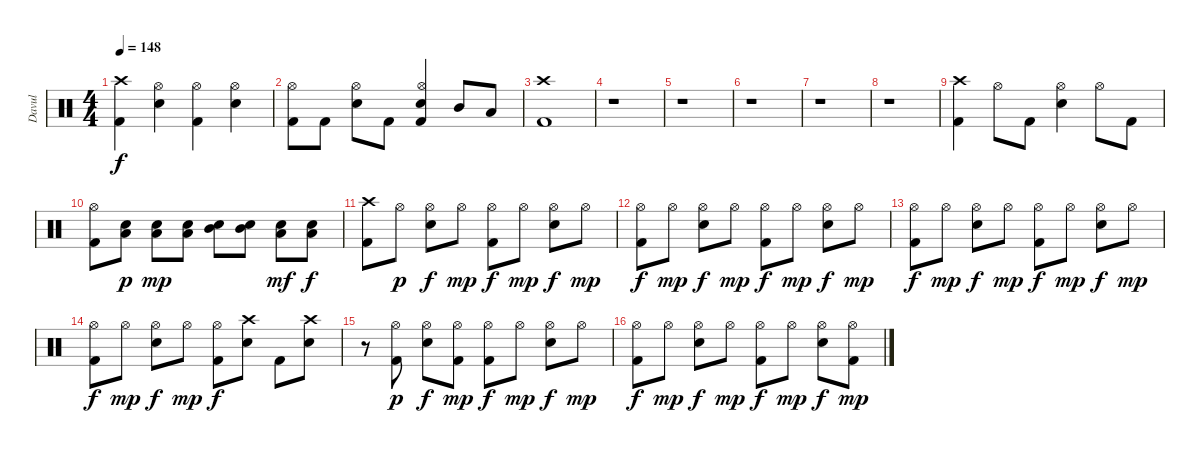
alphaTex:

\track ("Davul" "Davul") {instrument percussion}
\staff {score}
\articulation defaults
\ts (4 4)
\tempo 148
\clef neutral
\ks c
("Crash high (hit)" "Kick (hit) 2").4{dy f} ("Hi-Hat (open)" "Electric Snare (hit)").4 ("Hi-Hat (open)" "Kick (hit) 2").4 ("Hi-Hat (open)" "Electric Snare (hit)").4 |
("Hi-Hat (open)" "Kick (hit) 2").8 "Kick (hit) 2".8 ("Hi-Hat (open)" "Electric Snare (hit)").8 "Kick (hit) 2".8 ("Hi-Hat (open)" "Kick (hit) 2" "Electric Snare (hit)").4 "Mid Tom (hit)".8 "Low Tom (hit)".8 |
("Crash high (hit)" "Kick (hit) 2").1 |
r.1 |
r.1 |
r.1 |
r.1 |
r.1 |
("Crash high (hit)" "Kick (hit) 2").4 "Hi-Hat (open)".8 "Kick (hit) 2".8 ("Hi-Hat (open)" "Electric Snare (hit)").4 "Hi-Hat (open)".8 "Kick (hit) 2".8 |
("Hi-Hat (open)" "Kick (hit) 2").8 ("Low Floor Tom (hit)" "Electric Snare (hit)").8{dy p} ("Low Floor Tom (hit)" "Electric Snare (hit)").8{dy mp} ("Low Floor Tom (hit)" "Electric Snare (hit)").8 ("Electric Snare (hit)" "Mid Tom (hit)").8 ("Electric Snare (hit)" "Mid Tom (hit)").8 ("Electric Snare (hit)" "Low Tom (hit)").8{dy mf} ("Low Floor Tom (hit)" "Electric Snare (hit)").8{dy f} |
("Crash high (hit)" "Kick (hit) 2").8 "Hi-Hat (open)".8{dy p} ("Hi-Hat (open)" "Electric Snare (hit)").8{dy f} "Hi-Hat (open)".8{dy mp} ("Hi-Hat (open)" "Kick (hit) 2").8{dy f} "Hi-Hat (open)".8{dy mp} ("Hi-Hat (open)" "Electric Snare (hit)").8{dy f} "Hi-Hat (open)".8{dy mp} |
("Hi-Hat (open)" "Kick (hit) 2").8{dy f} "Hi-Hat (open)".8{dy mp} ("Hi-Hat (open)" "Electric Snare (hit)").8{dy f} "Hi-Hat (open)".8{dy mp} ("Hi-Hat (open)" "Kick (hit) 2").8{dy f} "Hi-Hat (open)".8{dy mp} ("Hi-Hat (open)" "Electric Snare (hit)").8{dy f} "Hi-Hat (open)".8{dy mp} |
("Hi-Hat (open)" "Kick (hit) 2").8{dy f} "Hi-Hat (open)".8{dy mp} ("Hi-Hat (open)" "Electric Snare (hit)").8{dy f} "Hi-Hat (open)".8{dy mp} ("Hi-Hat (open)" "Kick (hit) 2").8{dy f} "Hi-Hat (open)".8{dy mp} ("Hi-Hat (open)" "Electric Snare (hit)").8{dy f} "Hi-Hat (open)".8{dy mp} |
("Hi-Hat (open)" "Kick (hit) 2").8{dy f} "Hi-Hat (open)".8{dy mp} ("Hi-Hat (open)" "Electric Snare (hit)").8{dy f} "Hi-Hat (open)".8{dy mp} ("Hi-Hat (open)" "Kick (hit) 2").8{dy f} ("Crash high (hit)" "Electric Snare (hit)").8 "Kick (hit) 2".8 ("Crash high (hit)" "Electric Snare (hit)").8 |
r.8 ("Hi-Hat (open)" "Kick (hit) 2").8{dy p} ("Hi-Hat (open)" "Electric Snare (hit)").8{dy f} ("Hi-Hat (open)" "Kick (hit) 2").8{dy mp} ("Hi-Hat (open)" "Kick (hit) 2").8{dy f} "Hi-Hat (open)".8{dy mp} ("Hi-Hat (open)" "Electric Snare (hit)").8{dy f} "Hi-Hat (open)".8{dy mp} |
("Hi-Hat (open)" "Kick (hit) 2").8{dy f} "Hi-Hat (open)".8{dy mp} ("Hi-Hat (open)" "Electric Snare (hit)").8{dy f} "Hi-Hat (open)".8{dy mp} ("Hi-Hat (open)" "Kick (hit) 2").8{dy f} "Hi-Hat (open)".8{dy mp} ("Hi-Hat (open)" "Electric Snare (hit)").8{dy f} ("Hi-Hat (open)" "Kick (hit) 2").8{dy mp}
